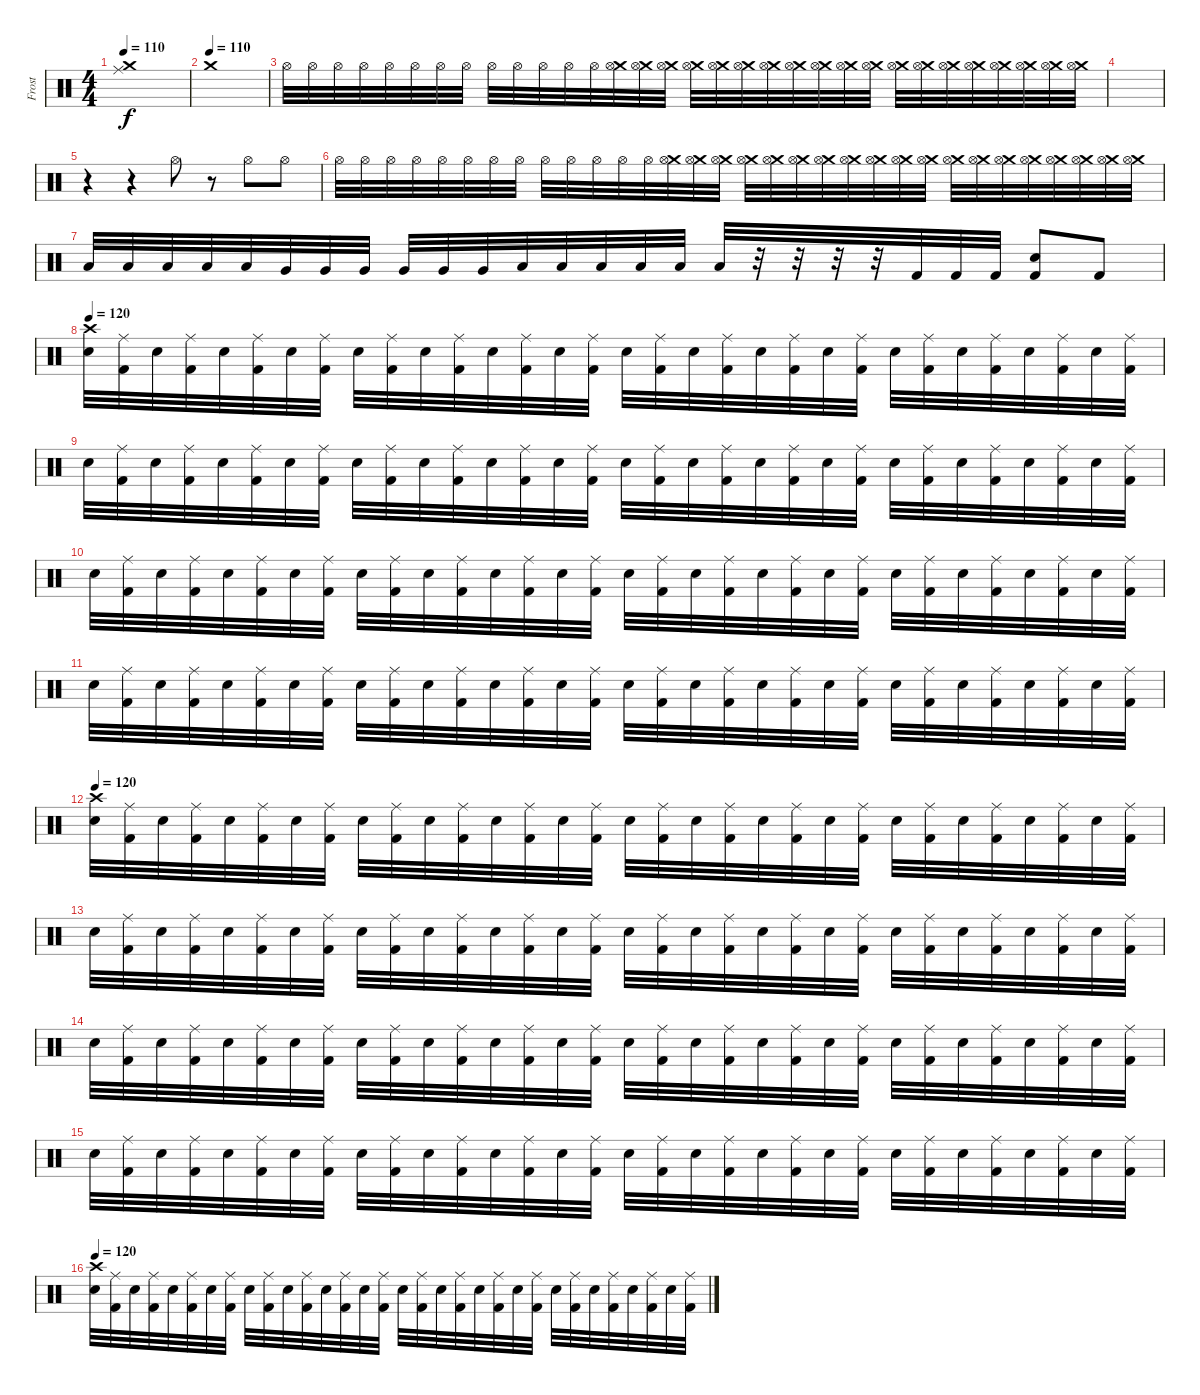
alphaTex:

\track ("Frost" "Frost") {instrument percussion}
\staff {score}
\articulation defaults
\ts (4 4)
\tempo 110
\clef neutral
\ks c
("Crash medium (hit)" "Ride (middle)").1{dy f} |
\tempo (110)
"Crash medium (hit)".1 |
"Hi-Hat (open)".32{volume 0} "Hi-Hat (open)".32{volume 15} "Hi-Hat (open)".32 "Hi-Hat (open)".32 "Hi-Hat (open)".32 "Hi-Hat (open)".32 "Hi-Hat (open)".32 "Hi-Hat (open)".32 "Hi-Hat (open)".32 "Hi-Hat (open)".32 "Hi-Hat (open)".32 "Hi-Hat (open)".32 "Hi-Hat (open)".32 ("Crash medium (hit)" "Hi-Hat (open)").32 ("Crash medium (hit)" "Hi-Hat (open)").32 ("Crash medium (hit)" "Hi-Hat (open)").32 ("Crash medium (hit)" "Hi-Hat (open)").32 ("Crash medium (hit)" "Hi-Hat (open)").32 ("Crash medium (hit)" "Hi-Hat (open)").32 ("Crash medium (hit)" "Hi-Hat (open)").32 ("Crash medium (hit)" "Hi-Hat (open)").32 ("Crash medium (hit)" "Hi-Hat (open)").32 ("Crash medium (hit)" "Hi-Hat (open)").32 ("Crash medium (hit)" "Hi-Hat (open)").32 ("Crash medium (hit)" "Hi-Hat (open)").32 ("Crash medium (hit)" "Hi-Hat (open)").32 ("Crash medium (hit)" "Hi-Hat (open)").32 ("Crash medium (hit)" "Hi-Hat (open)").32 ("Crash medium (hit)" "Hi-Hat (open)").32 ("Crash medium (hit)" "Hi-Hat (open)").32 ("Crash medium (hit)" "Hi-Hat (open)").32 ("Crash medium (hit)" "Hi-Hat (open)").32 |
|
r.4 r.4 "Hi-Hat (open)".8 r.8 "Hi-Hat (open)".8 "Hi-Hat (open)".8 |
"Hi-Hat (open)".32{volume 0} "Hi-Hat (open)".32{volume 15} "Hi-Hat (open)".32 "Hi-Hat (open)".32 "Hi-Hat (open)".32 "Hi-Hat (open)".32 "Hi-Hat (open)".32 "Hi-Hat (open)".32 "Hi-Hat (open)".32 "Hi-Hat (open)".32 "Hi-Hat (open)".32 "Hi-Hat (open)".32 "Hi-Hat (open)".32 ("Crash medium (hit)" "Hi-Hat (open)").32 ("Crash medium (hit)" "Hi-Hat (open)").32 ("Crash medium (hit)" "Hi-Hat (open)").32 ("Crash medium (hit)" "Hi-Hat (open)").32 ("Crash medium (hit)" "Hi-Hat (open)").32 ("Crash medium (hit)" "Hi-Hat (open)").32 ("Crash medium (hit)" "Hi-Hat (open)").32 ("Crash medium (hit)" "Hi-Hat (open)").32 ("Crash medium (hit)" "Hi-Hat (open)").32 ("Crash medium (hit)" "Hi-Hat (open)").32 ("Crash medium (hit)" "Hi-Hat (open)").32 ("Crash medium (hit)" "Hi-Hat (open)").32 ("Crash medium (hit)" "Hi-Hat (open)").32 ("Crash medium (hit)" "Hi-Hat (open)").32 ("Crash medium (hit)" "Hi-Hat (open)").32 ("Crash medium (hit)" "Hi-Hat (open)").32 ("Crash medium (hit)" "Hi-Hat (open)").32 ("Crash medium (hit)" "Hi-Hat (open)").32 ("Crash medium (hit)" "Hi-Hat (open)").32 |
"Low Tom (hit)".32 "Low Tom (hit)".32 "Low Tom (hit)".32 "Low Tom (hit)".32 "Low Tom (hit)".32 "Very Low Tom (hit)".32 "Very Low Tom (hit)".32 "Very Low Tom (hit)".32 "Very Low Tom (hit)".32 "Very Low Tom (hit)".32 "Very Low Tom (hit)".32 "Low Floor Tom (hit)".32 "Low Floor Tom (hit)".32 "Low Floor Tom (hit)".32 "Low Floor Tom (hit)".32 "Low Floor Tom (hit)".32 "Low Floor Tom (hit)".32 r.32 r.32 r.32 r.32 "Kick (hit) 2".32 "Kick (hit) 2".32 "Kick (hit) 2".32 ("Snare (hit) 2" "Kick (hit) 2").8 "Kick (hit) 2".8 |
\tempo 120
("Crash high (hit)" "Snare (hit) 2").32 ("Ride (middle)" "Kick (hit) 2").32 "Snare (hit) 2".32 ("Ride (middle)" "Kick (hit) 2").32 "Snare (hit) 2".32 ("Ride (middle)" "Kick (hit) 2").32 "Snare (hit) 2".32 ("Ride (middle)" "Kick (hit) 2").32 "Snare (hit) 2".32 ("Ride (middle)" "Kick (hit) 2").32 "Snare (hit) 2".32 ("Ride (middle)" "Kick (hit) 2").32 "Snare (hit) 2".32 ("Ride (middle)" "Kick (hit) 2").32 "Snare (hit) 2".32 ("Ride (middle)" "Kick (hit) 2").32 "Snare (hit) 2".32 ("Ride (middle)" "Kick (hit) 2").32 "Snare (hit) 2".32 ("Ride (middle)" "Kick (hit) 2").32 "Snare (hit) 2".32 ("Ride (middle)" "Kick (hit) 2").32 "Snare (hit) 2".32 ("Ride (middle)" "Kick (hit) 2").32 "Snare (hit) 2".32 ("Ride (middle)" "Kick (hit) 2").32 "Snare (hit) 2".32 ("Ride (middle)" "Kick (hit) 2").32 "Snare (hit) 2".32 ("Ride (middle)" "Kick (hit) 2").32 "Snare (hit) 2".32 ("Ride (middle)" "Kick (hit) 2").32 |
"Snare (hit) 2".32 ("Ride (middle)" "Kick (hit) 2").32 "Snare (hit) 2".32 ("Ride (middle)" "Kick (hit) 2").32 "Snare (hit) 2".32 ("Ride (middle)" "Kick (hit) 2").32 "Snare (hit) 2".32 ("Ride (middle)" "Kick (hit) 2").32 "Snare (hit) 2".32 ("Ride (middle)" "Kick (hit) 2").32 "Snare (hit) 2".32 ("Ride (middle)" "Kick (hit) 2").32 "Snare (hit) 2".32 ("Ride (middle)" "Kick (hit) 2").32 "Snare (hit) 2".32 ("Ride (middle)" "Kick (hit) 2").32 "Snare (hit) 2".32 ("Ride (middle)" "Kick (hit) 2").32 "Snare (hit) 2".32 ("Ride (middle)" "Kick (hit) 2").32 "Snare (hit) 2".32 ("Ride (middle)" "Kick (hit) 2").32 "Snare (hit) 2".32 ("Ride (middle)" "Kick (hit) 2").32 "Snare (hit) 2".32 ("Ride (middle)" "Kick (hit) 2").32 "Snare (hit) 2".32 ("Ride (middle)" "Kick (hit) 2").32 "Snare (hit) 2".32 ("Ride (middle)" "Kick (hit) 2").32 "Snare (hit) 2".32 ("Ride (middle)" "Kick (hit) 2").32 |
"Snare (hit) 2".32 ("Ride (middle)" "Kick (hit) 2").32 "Snare (hit) 2".32 ("Ride (middle)" "Kick (hit) 2").32 "Snare (hit) 2".32 ("Ride (middle)" "Kick (hit) 2").32 "Snare (hit) 2".32 ("Ride (middle)" "Kick (hit) 2").32 "Snare (hit) 2".32 ("Ride (middle)" "Kick (hit) 2").32 "Snare (hit) 2".32 ("Ride (middle)" "Kick (hit) 2").32 "Snare (hit) 2".32 ("Ride (middle)" "Kick (hit) 2").32 "Snare (hit) 2".32 ("Ride (middle)" "Kick (hit) 2").32 "Snare (hit) 2".32 ("Ride (middle)" "Kick (hit) 2").32 "Snare (hit) 2".32 ("Ride (middle)" "Kick (hit) 2").32 "Snare (hit) 2".32 ("Ride (middle)" "Kick (hit) 2").32 "Snare (hit) 2".32 ("Ride (middle)" "Kick (hit) 2").32 "Snare (hit) 2".32 ("Ride (middle)" "Kick (hit) 2").32 "Snare (hit) 2".32 ("Ride (middle)" "Kick (hit) 2").32 "Snare (hit) 2".32 ("Ride (middle)" "Kick (hit) 2").32 "Snare (hit) 2".32 ("Ride (middle)" "Kick (hit) 2").32 |
"Snare (hit) 2".32 ("Ride (middle)" "Kick (hit) 2").32 "Snare (hit) 2".32 ("Ride (middle)" "Kick (hit) 2").32 "Snare (hit) 2".32 ("Ride (middle)" "Kick (hit) 2").32 "Snare (hit) 2".32 ("Ride (middle)" "Kick (hit) 2").32 "Snare (hit) 2".32 ("Ride (middle)" "Kick (hit) 2").32 "Snare (hit) 2".32 ("Ride (middle)" "Kick (hit) 2").32 "Snare (hit) 2".32 ("Ride (middle)" "Kick (hit) 2").32 "Snare (hit) 2".32 ("Ride (middle)" "Kick (hit) 2").32 "Snare (hit) 2".32 ("Ride (middle)" "Kick (hit) 2").32 "Snare (hit) 2".32 ("Ride (middle)" "Kick (hit) 2").32 "Snare (hit) 2".32 ("Ride (middle)" "Kick (hit) 2").32 "Snare (hit) 2".32 ("Ride (middle)" "Kick (hit) 2").32 "Snare (hit) 2".32 ("Ride (middle)" "Kick (hit) 2").32 "Snare (hit) 2".32 ("Ride (middle)" "Kick (hit) 2").32 "Snare (hit) 2".32 ("Ride (middle)" "Kick (hit) 2").32 "Snare (hit) 2".32 ("Ride (middle)" "Kick (hit) 2").32 |
\tempo 120
("Crash high (hit)" "Snare (hit) 2").32 ("Ride (middle)" "Kick (hit) 2").32 "Snare (hit) 2".32 ("Ride (middle)" "Kick (hit) 2").32 "Snare (hit) 2".32 ("Ride (middle)" "Kick (hit) 2").32 "Snare (hit) 2".32 ("Ride (middle)" "Kick (hit) 2").32 "Snare (hit) 2".32 ("Ride (middle)" "Kick (hit) 2").32 "Snare (hit) 2".32 ("Ride (middle)" "Kick (hit) 2").32 "Snare (hit) 2".32 ("Ride (middle)" "Kick (hit) 2").32 "Snare (hit) 2".32 ("Ride (middle)" "Kick (hit) 2").32 "Snare (hit) 2".32 ("Ride (middle)" "Kick (hit) 2").32 "Snare (hit) 2".32 ("Ride (middle)" "Kick (hit) 2").32 "Snare (hit) 2".32 ("Ride (middle)" "Kick (hit) 2").32 "Snare (hit) 2".32 ("Ride (middle)" "Kick (hit) 2").32 "Snare (hit) 2".32 ("Ride (middle)" "Kick (hit) 2").32 "Snare (hit) 2".32 ("Ride (middle)" "Kick (hit) 2").32 "Snare (hit) 2".32 ("Ride (middle)" "Kick (hit) 2").32 "Snare (hit) 2".32 ("Ride (middle)" "Kick (hit) 2").32 |
"Snare (hit) 2".32 ("Ride (middle)" "Kick (hit) 2").32 "Snare (hit) 2".32 ("Ride (middle)" "Kick (hit) 2").32 "Snare (hit) 2".32 ("Ride (middle)" "Kick (hit) 2").32 "Snare (hit) 2".32 ("Ride (middle)" "Kick (hit) 2").32 "Snare (hit) 2".32 ("Ride (middle)" "Kick (hit) 2").32 "Snare (hit) 2".32 ("Ride (middle)" "Kick (hit) 2").32 "Snare (hit) 2".32 ("Ride (middle)" "Kick (hit) 2").32 "Snare (hit) 2".32 ("Ride (middle)" "Kick (hit) 2").32 "Snare (hit) 2".32 ("Ride (middle)" "Kick (hit) 2").32 "Snare (hit) 2".32 ("Ride (middle)" "Kick (hit) 2").32 "Snare (hit) 2".32 ("Ride (middle)" "Kick (hit) 2").32 "Snare (hit) 2".32 ("Ride (middle)" "Kick (hit) 2").32 "Snare (hit) 2".32 ("Ride (middle)" "Kick (hit) 2").32 "Snare (hit) 2".32 ("Ride (middle)" "Kick (hit) 2").32 "Snare (hit) 2".32 ("Ride (middle)" "Kick (hit) 2").32 "Snare (hit) 2".32 ("Ride (middle)" "Kick (hit) 2").32 |
"Snare (hit) 2".32 ("Ride (middle)" "Kick (hit) 2").32 "Snare (hit) 2".32 ("Ride (middle)" "Kick (hit) 2").32 "Snare (hit) 2".32 ("Ride (middle)" "Kick (hit) 2").32 "Snare (hit) 2".32 ("Ride (middle)" "Kick (hit) 2").32 "Snare (hit) 2".32 ("Ride (middle)" "Kick (hit) 2").32 "Snare (hit) 2".32 ("Ride (middle)" "Kick (hit) 2").32 "Snare (hit) 2".32 ("Ride (middle)" "Kick (hit) 2").32 "Snare (hit) 2".32 ("Ride (middle)" "Kick (hit) 2").32 "Snare (hit) 2".32 ("Ride (middle)" "Kick (hit) 2").32 "Snare (hit) 2".32 ("Ride (middle)" "Kick (hit) 2").32 "Snare (hit) 2".32 ("Ride (middle)" "Kick (hit) 2").32 "Snare (hit) 2".32 ("Ride (middle)" "Kick (hit) 2").32 "Snare (hit) 2".32 ("Ride (middle)" "Kick (hit) 2").32 "Snare (hit) 2".32 ("Ride (middle)" "Kick (hit) 2").32 "Snare (hit) 2".32 ("Ride (middle)" "Kick (hit) 2").32 "Snare (hit) 2".32 ("Ride (middle)" "Kick (hit) 2").32 |
"Snare (hit) 2".32 ("Ride (middle)" "Kick (hit) 2").32 "Snare (hit) 2".32 ("Ride (middle)" "Kick (hit) 2").32 "Snare (hit) 2".32 ("Ride (middle)" "Kick (hit) 2").32 "Snare (hit) 2".32 ("Ride (middle)" "Kick (hit) 2").32 "Snare (hit) 2".32 ("Ride (middle)" "Kick (hit) 2").32 "Snare (hit) 2".32 ("Ride (middle)" "Kick (hit) 2").32 "Snare (hit) 2".32 ("Ride (middle)" "Kick (hit) 2").32 "Snare (hit) 2".32 ("Ride (middle)" "Kick (hit) 2").32 "Snare (hit) 2".32 ("Ride (middle)" "Kick (hit) 2").32 "Snare (hit) 2".32 ("Ride (middle)" "Kick (hit) 2").32 "Snare (hit) 2".32 ("Ride (middle)" "Kick (hit) 2").32 "Snare (hit) 2".32 ("Ride (middle)" "Kick (hit) 2").32 "Snare (hit) 2".32 ("Ride (middle)" "Kick (hit) 2").32 "Snare (hit) 2".32 ("Ride (middle)" "Kick (hit) 2").32 "Snare (hit) 2".32 ("Ride (middle)" "Kick (hit) 2").32 "Snare (hit) 2".32 ("Ride (middle)" "Kick (hit) 2").32 |
\tempo 120
("Crash high (hit)" "Snare (hit) 2").32 ("Ride (middle)" "Kick (hit) 2").32 "Snare (hit) 2".32 ("Ride (middle)" "Kick (hit) 2").32 "Snare (hit) 2".32 ("Ride (middle)" "Kick (hit) 2").32 "Snare (hit) 2".32 ("Ride (middle)" "Kick (hit) 2").32 "Snare (hit) 2".32 ("Ride (middle)" "Kick (hit) 2").32 "Snare (hit) 2".32 ("Ride (middle)" "Kick (hit) 2").32 "Snare (hit) 2".32 ("Ride (middle)" "Kick (hit) 2").32 "Snare (hit) 2".32 ("Ride (middle)" "Kick (hit) 2").32 "Snare (hit) 2".32 ("Ride (middle)" "Kick (hit) 2").32 "Snare (hit) 2".32 ("Ride (middle)" "Kick (hit) 2").32 "Snare (hit) 2".32 ("Ride (middle)" "Kick (hit) 2").32 "Snare (hit) 2".32 ("Ride (middle)" "Kick (hit) 2").32 "Snare (hit) 2".32 ("Ride (middle)" "Kick (hit) 2").32 "Snare (hit) 2".32 ("Ride (middle)" "Kick (hit) 2").32 "Snare (hit) 2".32 ("Ride (middle)" "Kick (hit) 2").32 "Snare (hit) 2".32 ("Ride (middle)" "Kick (hit) 2").32
